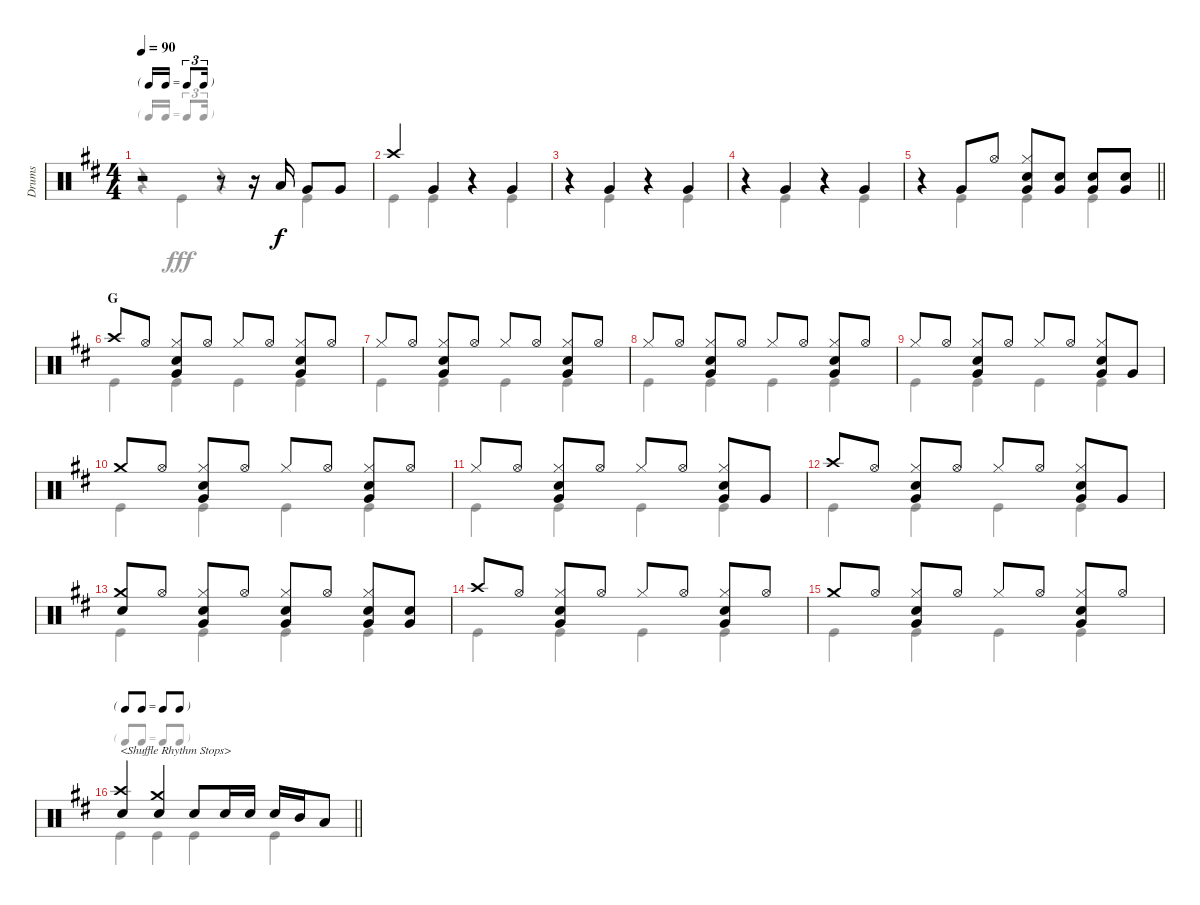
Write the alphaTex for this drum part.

\track ("Drums" "Drums") {instrument percussion}
\staff {score}
\articulation defaults
\voice
\ts (4 4)
\tf triplet16th
\tempo 90
\clef neutral
\ks d
r.2{dy f} r.8 r.16 "Low Tom (hit)".16 "Very Low Tom (hit)".8 "Very Low Tom (hit)".8 |
"Crash high (hit)".4 "Very Low Tom (hit)".4 r.4 "Very Low Tom (hit)".4 |
r.4 "Very Low Tom (hit)".4 r.4 "Very Low Tom (hit)".4 |
r.4 "Very Low Tom (hit)".4 r.4 "Very Low Tom (hit)".4 |
\barLineRight lightlight
r.4 "Very Low Tom (hit)".8 "Hi-Hat (open)".8 ("Hi-Hat (closed)" "Snare (hit) 2" "Very Low Tom (hit)").8 ("Snare (hit) 2" "Very Low Tom (hit)").8 ("Snare (hit) 2" "Very Low Tom (hit)").8 ("Snare (hit) 2" "Very Low Tom (hit)").8 |
\section ("" "G")
"Crash high (hit)".8 "Hi-Hat (open)".8 ("Hi-Hat (closed)" "Snare (hit) 2" "Very Low Tom (hit)").8 "Hi-Hat (open)".8 "Hi-Hat (closed)".8 "Hi-Hat (open)".8 ("Hi-Hat (closed)" "Snare (hit) 2" "Very Low Tom (hit)").8 "Hi-Hat (open)".8 |
"Hi-Hat (closed)".8 "Hi-Hat (open)".8 ("Hi-Hat (closed)" "Snare (hit) 2" "Very Low Tom (hit)").8 "Hi-Hat (open)".8 "Hi-Hat (closed)".8 "Hi-Hat (open)".8 ("Hi-Hat (closed)" "Snare (hit) 2" "Very Low Tom (hit)").8 "Hi-Hat (open)".8 |
"Hi-Hat (closed)".8 "Hi-Hat (open)".8 ("Hi-Hat (closed)" "Snare (hit) 2" "Very Low Tom (hit)").8 "Hi-Hat (open)".8 "Hi-Hat (closed)".8 "Hi-Hat (open)".8 ("Hi-Hat (closed)" "Snare (hit) 2" "Very Low Tom (hit)").8 "Hi-Hat (open)".8 |
"Hi-Hat (closed)".8 "Hi-Hat (open)".8 ("Hi-Hat (closed)" "Snare (hit) 2" "Very Low Tom (hit)").8 "Hi-Hat (open)".8 "Hi-Hat (closed)".8 "Hi-Hat (open)".8 ("Hi-Hat (closed)" "Snare (hit) 2" "Very Low Tom (hit)").8 "Very Low Tom (hit)".8 |
"Crash medium (hit)".8 "Hi-Hat (open)".8 ("Hi-Hat (closed)" "Snare (hit) 2" "Very Low Tom (hit)").8 "Hi-Hat (open)".8 "Hi-Hat (closed)".8 "Hi-Hat (open)".8 ("Hi-Hat (closed)" "Snare (hit) 2" "Very Low Tom (hit)").8 "Hi-Hat (open)".8 |
"Hi-Hat (closed)".8 "Hi-Hat (open)".8 ("Hi-Hat (closed)" "Snare (hit) 2" "Very Low Tom (hit)").8 "Hi-Hat (open)".8 "Hi-Hat (closed)".8 "Hi-Hat (open)".8 ("Hi-Hat (closed)" "Snare (hit) 2" "Very Low Tom (hit)").8 "Very Low Tom (hit)".8 |
"Crash high (hit)".8 "Hi-Hat (open)".8 ("Hi-Hat (closed)" "Snare (hit) 2" "Very Low Tom (hit)").8 "Hi-Hat (open)".8 "Hi-Hat (closed)".8 "Hi-Hat (open)".8 ("Hi-Hat (closed)" "Snare (hit) 2" "Very Low Tom (hit)").8 "Very Low Tom (hit)".8 |
("Crash medium (hit)" "Snare (hit) 2").8 "Hi-Hat (open)".8 ("Hi-Hat (closed)" "Snare (hit) 2" "Very Low Tom (hit)").8 "Hi-Hat (open)".8 ("Hi-Hat (closed)" "Snare (hit) 2" "Very Low Tom (hit)").8 "Hi-Hat (open)".8 ("Hi-Hat (closed)" "Snare (hit) 2" "Very Low Tom (hit)").8 ("Snare (hit) 2" "Very Low Tom (hit)").8 |
"Crash high (hit)".8 "Hi-Hat (open)".8 ("Hi-Hat (closed)" "Snare (hit) 2" "Very Low Tom (hit)").8 "Hi-Hat (open)".8 "Hi-Hat (closed)".8 "Hi-Hat (open)".8 ("Hi-Hat (closed)" "Snare (hit) 2" "Very Low Tom (hit)").8 "Hi-Hat (open)".8 |
"Crash medium (hit)".8 "Hi-Hat (open)".8 ("Hi-Hat (closed)" "Snare (hit) 2" "Very Low Tom (hit)").8 "Hi-Hat (open)".8 "Hi-Hat (closed)".8 "Hi-Hat (open)".8 ("Hi-Hat (closed)" "Snare (hit) 2" "Very Low Tom (hit)").8 "Hi-Hat (open)".8 |
\tf none
\barLineRight lightlight
("Crash high (hit)" "Snare (hit) 2").4{txt "<Shuffle Rhythm Stops>"} ("Crash medium (hit)" "Snare (hit) 2").4 "Snare (hit) 2".8 "Snare (hit) 2".16 "Snare (hit) 2".16 "Snare (hit) 2".16 "Mid Tom (hit)".16 "Low Tom (hit)".8
\voice
\clef neutral
\ottava regular
\simile none
\ks d
r.4{dy fff} "Kick (hit)".4 r.4 "Kick (hit)".4 |
"Kick (hit)".4 "Kick (hit)".4 r.4 "Kick (hit)".4 |
r.4 "Kick (hit)".4 r.4 "Kick (hit)".4 |
r.4 "Kick (hit)".4 r.4 "Kick (hit)".4 |
\barLineRight lightlight
r.4 "Kick (hit)".4 "Kick (hit)".4 "Kick (hit)".4 |
"Kick (hit)".4 "Kick (hit)".4 "Kick (hit)".4 "Kick (hit)".4 |
"Kick (hit)".4 "Kick (hit)".4 "Kick (hit)".4 "Kick (hit)".4 |
"Kick (hit)".4 "Kick (hit)".4 "Kick (hit)".4 "Kick (hit)".4 |
"Kick (hit)".4 "Kick (hit)".4 "Kick (hit)".4 "Kick (hit)".4 |
"Kick (hit)".4 "Kick (hit)".4 "Kick (hit)".4 "Kick (hit)".4 |
"Kick (hit)".4 "Kick (hit)".4 "Kick (hit)".4 "Kick (hit)".4 |
"Kick (hit)".4 "Kick (hit)".4 "Kick (hit)".4 "Kick (hit)".4 |
"Kick (hit)".4 "Kick (hit)".4 "Kick (hit)".4 "Kick (hit)".4 |
"Kick (hit)".4 "Kick (hit)".4 "Kick (hit)".4 "Kick (hit)".4 |
"Kick (hit)".4 "Kick (hit)".4 "Kick (hit)".4 "Kick (hit)".4 |
\barLineRight lightlight "Kick (hit)".4 "Kick (hit)".4 "Kick (hit)".4 "Kick (hit)".4
